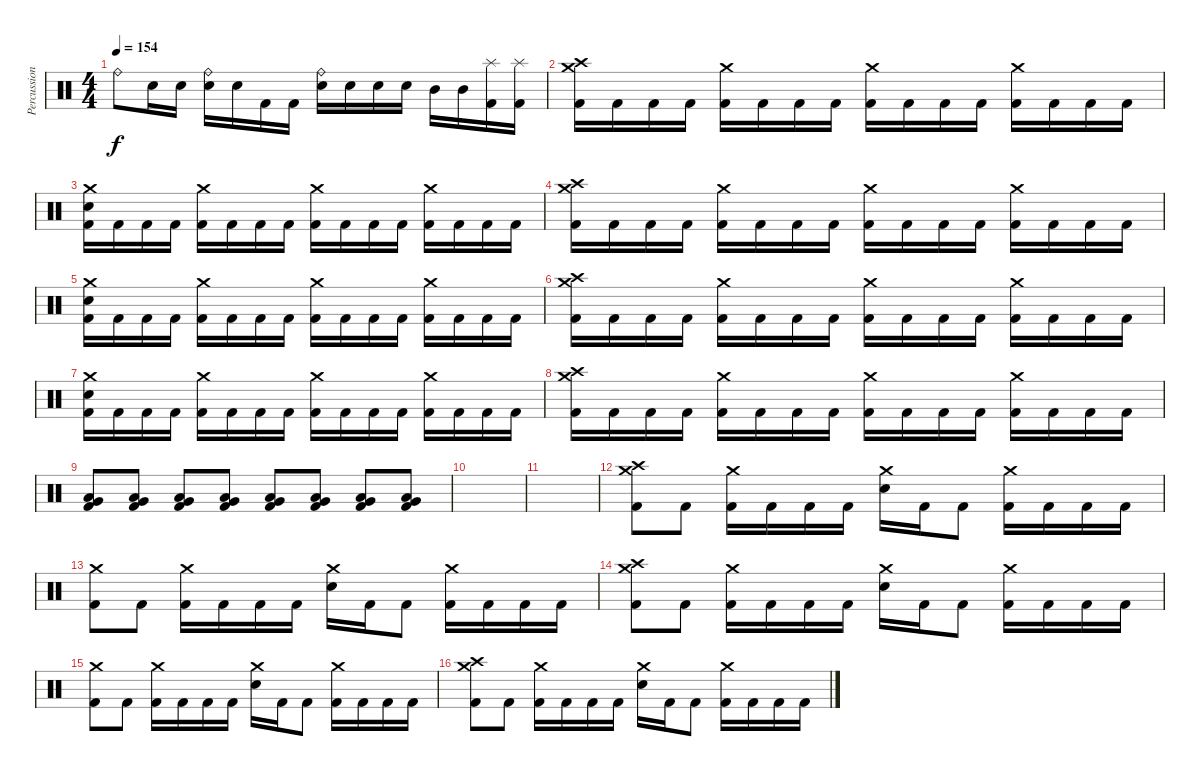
\track ("Percussion" "Percussion") {instrument percussion bank 128}
\staff {score}
\articulation defaults
\ts (4 4)
\tempo 154
\clef neutral
\ks c "Ride (bell)".8{dy f} "Snare (hit) 2".16 "Snare (hit) 2".16
("Ride (bell)" "Snare (hit) 2").16 "Snare (hit) 2".16 "Kick (hit) 2".16 "Kick (hit) 2".16 ("Ride (bell)" "Snare (hit) 2").16 "Snare (hit) 2".16 "Snare (hit) 2".16 "Snare (hit) 2".16 "Mid Tom (hit)".16 "Mid Tom (hit)".16 ("Splash (hit)" "Kick (hit) 2").16 ("Splash (hit)" "Kick (hit) 2").16 |
("Crash high (hit)" "Crash medium (hit)" "Kick (hit) 2").16 "Kick (hit) 2".16 "Kick (hit) 2".16 "Kick (hit) 2".16 ("Crash medium (hit)" "Kick (hit) 2").16 "Kick (hit) 2".16 "Kick (hit) 2".16 "Kick (hit) 2".16 ("Crash medium (hit)" "Kick (hit) 2").16 "Kick (hit) 2".16 "Kick (hit) 2".16 "Kick (hit) 2".16 ("Crash medium (hit)" "Kick (hit) 2").16 "Kick (hit) 2".16 "Kick (hit) 2".16 "Kick (hit) 2".16 |
("Crash medium (hit)" "Snare (hit) 2" "Kick (hit) 2").16 "Kick (hit) 2".16 "Kick (hit) 2".16 "Kick (hit) 2".16 ("Crash medium (hit)" "Kick (hit) 2").16 "Kick (hit) 2".16 "Kick (hit) 2".16 "Kick (hit) 2".16 ("Crash medium (hit)" "Kick (hit) 2").16 "Kick (hit) 2".16 "Kick (hit) 2".16 "Kick (hit) 2".16 ("Crash medium (hit)" "Kick (hit) 2").16 "Kick (hit) 2".16 "Kick (hit) 2".16 "Kick (hit) 2".16 |
("Crash high (hit)" "Crash medium (hit)" "Kick (hit) 2").16 "Kick (hit) 2".16 "Kick (hit) 2".16 "Kick (hit) 2".16 ("Crash medium (hit)" "Kick (hit) 2").16 "Kick (hit) 2".16 "Kick (hit) 2".16 "Kick (hit) 2".16 ("Crash medium (hit)" "Kick (hit) 2").16 "Kick (hit) 2".16 "Kick (hit) 2".16 "Kick (hit) 2".16 ("Crash medium (hit)" "Kick (hit) 2").16 "Kick (hit) 2".16 "Kick (hit) 2".16 "Kick (hit) 2".16 |
("Crash medium (hit)" "Snare (hit) 2" "Kick (hit) 2").16 "Kick (hit) 2".16 "Kick (hit) 2".16 "Kick (hit) 2".16 ("Crash medium (hit)" "Kick (hit) 2").16 "Kick (hit) 2".16 "Kick (hit) 2".16 "Kick (hit) 2".16 ("Crash medium (hit)" "Kick (hit) 2").16 "Kick (hit) 2".16 "Kick (hit) 2".16 "Kick (hit) 2".16 ("Crash medium (hit)" "Kick (hit) 2").16 "Kick (hit) 2".16 "Kick (hit) 2".16 "Kick (hit) 2".16 |
("Crash high (hit)" "Crash medium (hit)" "Kick (hit) 2").16 "Kick (hit) 2".16 "Kick (hit) 2".16 "Kick (hit) 2".16 ("Crash medium (hit)" "Kick (hit) 2").16 "Kick (hit) 2".16 "Kick (hit) 2".16 "Kick (hit) 2".16 ("Crash medium (hit)" "Kick (hit) 2").16 "Kick (hit) 2".16 "Kick (hit) 2".16 "Kick (hit) 2".16 ("Crash medium (hit)" "Kick (hit) 2").16 "Kick (hit) 2".16 "Kick (hit) 2".16 "Kick (hit) 2".16 |
("Crash medium (hit)" "Snare (hit) 2" "Kick (hit) 2").16 "Kick (hit) 2".16 "Kick (hit) 2".16 "Kick (hit) 2".16 ("Crash medium (hit)" "Kick (hit) 2").16 "Kick (hit) 2".16 "Kick (hit) 2".16 "Kick (hit) 2".16 ("Crash medium (hit)" "Kick (hit) 2").16 "Kick (hit) 2".16 "Kick (hit) 2".16 "Kick (hit) 2".16 ("Crash medium (hit)" "Kick (hit) 2").16 "Kick (hit) 2".16 "Kick (hit) 2".16 "Kick (hit) 2".16 |
("Crash high (hit)" "Crash medium (hit)" "Kick (hit) 2").16 "Kick (hit) 2".16 "Kick (hit) 2".16 "Kick (hit) 2".16 ("Crash medium (hit)" "Kick (hit) 2").16 "Kick (hit) 2".16 "Kick (hit) 2".16 "Kick (hit) 2".16 ("Crash medium (hit)" "Kick (hit) 2").16 "Kick (hit) 2".16 "Kick (hit) 2".16 "Kick (hit) 2".16 ("Crash medium (hit)" "Kick (hit) 2").16 "Kick (hit) 2".16 "Kick (hit) 2".16 "Kick (hit) 2".16 |
("Very Low Tom (hit)" "Low Tom (hit)" "Kick (hit) 2").8 ("Very Low Tom (hit)" "Low Tom (hit)" "Kick (hit) 2").8 ("Very Low Tom (hit)" "Low Tom (hit)" "Kick (hit) 2").8 ("Very Low Tom (hit)" "Low Tom (hit)" "Kick (hit) 2").8 ("Very Low Tom (hit)" "Low Tom (hit)" "Kick (hit) 2").8 ("Very Low Tom (hit)" "Low Tom (hit)" "Kick (hit) 2").8 ("Very Low Tom (hit)" "Low Tom (hit)" "Kick (hit) 2").8 ("Very Low Tom (hit)" "Low Tom (hit)" "Kick (hit) 2").8 |
|
|
("Crash high (hit)" "Crash medium (hit)" "Kick (hit) 2").8 "Kick (hit) 2".8 ("Crash medium (hit)" "Kick (hit) 2").16 "Kick (hit) 2".16 "Kick (hit) 2".16 "Kick (hit) 2".16 ("Crash medium (hit)" "Snare (hit) 2").16 "Kick (hit) 2".16 "Kick (hit) 2".8 ("Crash medium (hit)" "Kick (hit) 2").16 "Kick (hit) 2".16 "Kick (hit) 2".16 "Kick (hit) 2".16 |
("Crash medium (hit)" "Kick (hit) 2").8 "Kick (hit) 2".8 ("Crash medium (hit)" "Kick (hit) 2").16 "Kick (hit) 2".16 "Kick (hit) 2".16 "Kick (hit) 2".16 ("Crash medium (hit)" "Snare (hit) 2").16 "Kick (hit) 2".16 "Kick (hit) 2".8 ("Crash medium (hit)" "Kick (hit) 2").16 "Kick (hit) 2".16 "Kick (hit) 2".16 "Kick (hit) 2".16 |
("Crash high (hit)" "Crash medium (hit)" "Kick (hit) 2").8 "Kick (hit) 2".8 ("Crash medium (hit)" "Kick (hit) 2").16 "Kick (hit) 2".16 "Kick (hit) 2".16 "Kick (hit) 2".16 ("Crash medium (hit)" "Snare (hit) 2").16 "Kick (hit) 2".16 "Kick (hit) 2".8 ("Crash medium (hit)" "Kick (hit) 2").16 "Kick (hit) 2".16 "Kick (hit) 2".16 "Kick (hit) 2".16 |
("Crash medium (hit)" "Kick (hit) 2").8 "Kick (hit) 2".8 ("Crash medium (hit)" "Kick (hit) 2").16 "Kick (hit) 2".16 "Kick (hit) 2".16 "Kick (hit) 2".16 ("Crash medium (hit)" "Snare (hit) 2").16 "Kick (hit) 2".16 "Kick (hit) 2".8 ("Crash medium (hit)" "Kick (hit) 2").16 "Kick (hit) 2".16 "Kick (hit) 2".16 "Kick (hit) 2".16 |
("Crash high (hit)" "Crash medium (hit)" "Kick (hit) 2").8 "Kick (hit) 2".8 ("Crash medium (hit)" "Kick (hit) 2").16 "Kick (hit) 2".16 "Kick (hit) 2".16 "Kick (hit) 2".16 ("Crash medium (hit)" "Snare (hit) 2").16 "Kick (hit) 2".16 "Kick (hit) 2".8 ("Crash medium (hit)" "Kick (hit) 2").16 "Kick (hit) 2".16 "Kick (hit) 2".16 "Kick (hit) 2".16
